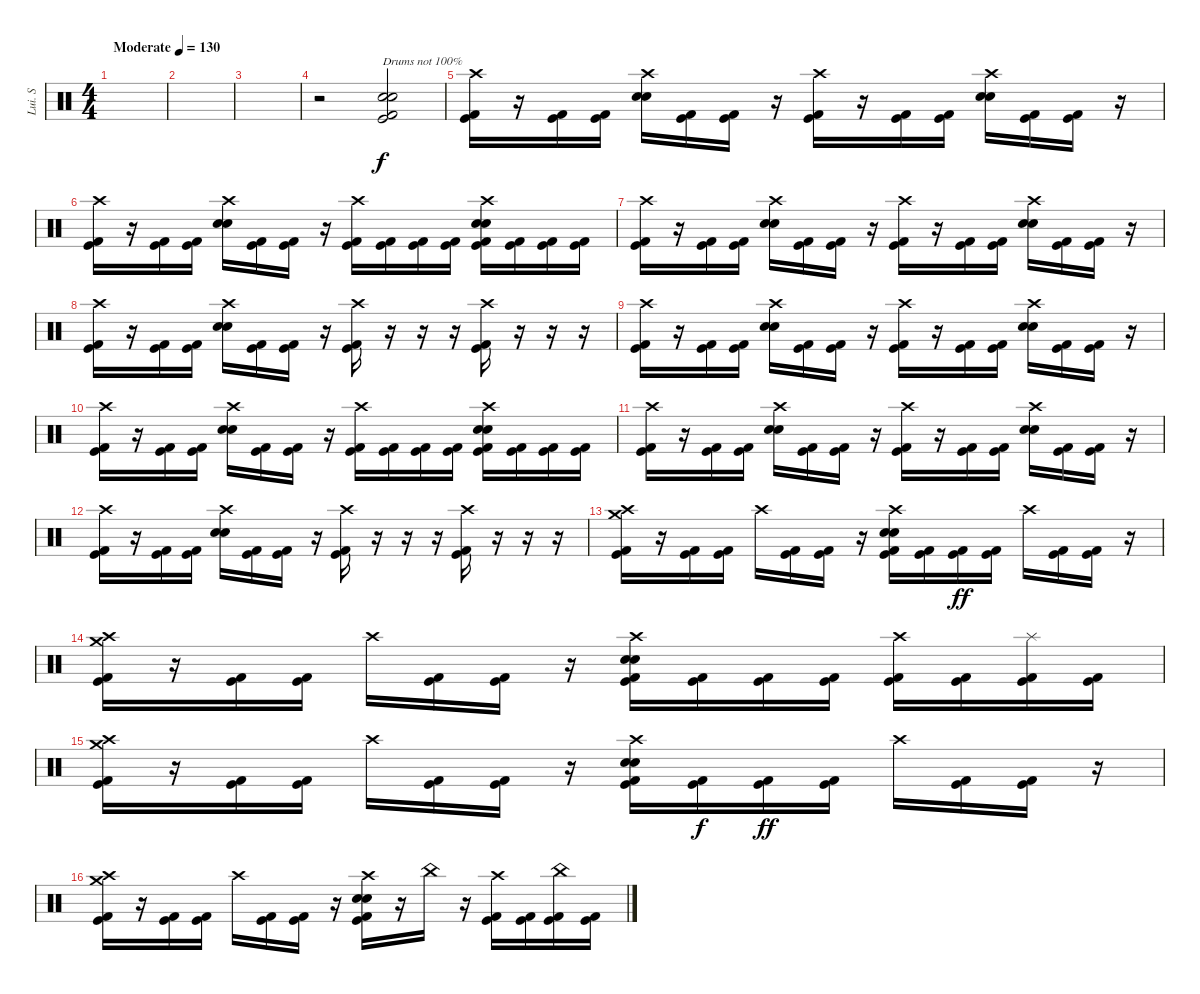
\track ("Lui. S" "Lui. S") {instrument percussion}
\staff {score}
\articulation defaults
\ts (4 4)
\tempo (130 "Moderate")
\clef neutral
\ks c
|
|
|
r.2 ("Snare (hit) 2" "Electric Snare (hit)" "Kick (hit) 2" "Kick (hit)").2{txt "Drums not 100% "} |
("Crash high (hit)" "Kick (hit)" "Kick (hit) 2").16 r.16 ("Kick (hit)" "Kick (hit) 2").16 ("Kick (hit)" "Kick (hit) 2").16 ("Crash high (hit)" "Snare (hit) 2" "Electric Snare (hit)").16 ("Kick (hit)" "Kick (hit) 2").16 ("Kick (hit)" "Kick (hit) 2").16 r.16 ("Crash high (hit)" "Kick (hit)" "Kick (hit) 2").16 r.16 ("Kick (hit)" "Kick (hit) 2").16 ("Kick (hit)" "Kick (hit) 2").16 ("Crash high (hit)" "Snare (hit) 2" "Electric Snare (hit)").16 ("Kick (hit)" "Kick (hit) 2").16 ("Kick (hit)" "Kick (hit) 2").16 r.16 |
("Crash high (hit)" "Kick (hit)" "Kick (hit) 2").16 r.16 ("Kick (hit)" "Kick (hit) 2").16 ("Kick (hit)" "Kick (hit) 2").16 ("Crash high (hit)" "Snare (hit) 2" "Electric Snare (hit)").16 ("Kick (hit)" "Kick (hit) 2").16 ("Kick (hit)" "Kick (hit) 2").16 r.16 ("Crash high (hit)" "Kick (hit)" "Kick (hit) 2").16 ("Kick (hit)" "Kick (hit) 2").16 ("Kick (hit)" "Kick (hit) 2").16 ("Kick (hit)" "Kick (hit) 2").16 ("Crash high (hit)" "Snare (hit) 2" "Electric Snare (hit)" "Kick (hit)" "Kick (hit) 2").16 ("Kick (hit)" "Kick (hit) 2").16 ("Kick (hit)" "Kick (hit) 2").16 ("Kick (hit)" "Kick (hit) 2").16 |
("Crash high (hit)" "Kick (hit)" "Kick (hit) 2").16 r.16 ("Kick (hit)" "Kick (hit) 2").16 ("Kick (hit)" "Kick (hit) 2").16 ("Crash high (hit)" "Snare (hit) 2" "Electric Snare (hit)").16 ("Kick (hit)" "Kick (hit) 2").16 ("Kick (hit)" "Kick (hit) 2").16 r.16 ("Crash high (hit)" "Kick (hit)" "Kick (hit) 2").16 r.16 ("Kick (hit)" "Kick (hit) 2").16 ("Kick (hit)" "Kick (hit) 2").16 ("Crash high (hit)" "Snare (hit) 2" "Electric Snare (hit)").16 ("Kick (hit)" "Kick (hit) 2").16 ("Kick (hit)" "Kick (hit) 2").16 r.16 |
("Crash high (hit)" "Kick (hit)" "Kick (hit) 2").16 r.16 ("Kick (hit)" "Kick (hit) 2").16 ("Kick (hit)" "Kick (hit) 2").16 ("Crash high (hit)" "Snare (hit) 2" "Electric Snare (hit)").16 ("Kick (hit)" "Kick (hit) 2").16 ("Kick (hit)" "Kick (hit) 2").16 r.16 ("Crash high (hit)" "Kick (hit)" "Kick (hit) 2").16 r.16 r.16 r.16 ("Crash high (hit)" "Kick (hit)" "Kick (hit) 2").16 r.16 r.16 r.16 |
("Crash high (hit)" "Kick (hit)" "Kick (hit) 2").16 r.16 ("Kick (hit)" "Kick (hit) 2").16 ("Kick (hit)" "Kick (hit) 2").16 ("Crash high (hit)" "Snare (hit) 2" "Electric Snare (hit)").16 ("Kick (hit)" "Kick (hit) 2").16 ("Kick (hit)" "Kick (hit) 2").16 r.16 ("Crash high (hit)" "Kick (hit)" "Kick (hit) 2").16 r.16 ("Kick (hit)" "Kick (hit) 2").16 ("Kick (hit)" "Kick (hit) 2").16 ("Crash high (hit)" "Snare (hit) 2" "Electric Snare (hit)").16 ("Kick (hit)" "Kick (hit) 2").16 ("Kick (hit)" "Kick (hit) 2").16 r.16 |
("Crash high (hit)" "Kick (hit)" "Kick (hit) 2").16 r.16 ("Kick (hit)" "Kick (hit) 2").16 ("Kick (hit)" "Kick (hit) 2").16 ("Crash high (hit)" "Snare (hit) 2" "Electric Snare (hit)").16 ("Kick (hit)" "Kick (hit) 2").16 ("Kick (hit)" "Kick (hit) 2").16 r.16 ("Crash high (hit)" "Kick (hit)" "Kick (hit) 2").16 ("Kick (hit)" "Kick (hit) 2").16 ("Kick (hit)" "Kick (hit) 2").16 ("Kick (hit)" "Kick (hit) 2").16 ("Crash high (hit)" "Snare (hit) 2" "Electric Snare (hit)" "Kick (hit)" "Kick (hit) 2").16 ("Kick (hit)" "Kick (hit) 2").16 ("Kick (hit)" "Kick (hit) 2").16 ("Kick (hit)" "Kick (hit) 2").16 |
("Crash high (hit)" "Kick (hit)" "Kick (hit) 2").16 r.16 ("Kick (hit)" "Kick (hit) 2").16 ("Kick (hit)" "Kick (hit) 2").16 ("Crash high (hit)" "Snare (hit) 2" "Electric Snare (hit)").16 ("Kick (hit)" "Kick (hit) 2").16 ("Kick (hit)" "Kick (hit) 2").16 r.16 ("Crash high (hit)" "Kick (hit)" "Kick (hit) 2").16 r.16 ("Kick (hit)" "Kick (hit) 2").16 ("Kick (hit)" "Kick (hit) 2").16 ("Crash high (hit)" "Snare (hit) 2" "Electric Snare (hit)").16 ("Kick (hit)" "Kick (hit) 2").16 ("Kick (hit)" "Kick (hit) 2").16 r.16 |
("Crash high (hit)" "Kick (hit)" "Kick (hit) 2").16 r.16 ("Kick (hit)" "Kick (hit) 2").16 ("Kick (hit)" "Kick (hit) 2").16 ("Crash high (hit)" "Snare (hit) 2" "Electric Snare (hit)").16 ("Kick (hit)" "Kick (hit) 2").16 ("Kick (hit)" "Kick (hit) 2").16 r.16 ("Crash high (hit)" "Kick (hit)" "Kick (hit) 2").16 r.16 r.16 r.16 ("Crash high (hit)" "Kick (hit)" "Kick (hit) 2").16 r.16 r.16 r.16 |
("Crash high (hit)" "Crash medium (hit)" "Kick (hit)" "Kick (hit) 2").16 r.16 ("Kick (hit)" "Kick (hit) 2").16 ("Kick (hit)" "Kick (hit) 2").16 "Crash high (hit)".16 ("Kick (hit)" "Kick (hit) 2").16 ("Kick (hit)" "Kick (hit) 2").16 r.16 ("Crash high (hit)" "Snare (hit) 2" "Electric Snare (hit)" "Kick (hit)" "Kick (hit) 2").16 ("Kick (hit)" "Kick (hit) 2").16{dy f} ("Kick (hit)" "Kick (hit) 2").16{dy ff} ("Kick (hit)" "Kick (hit) 2").16 "Crash high (hit)".16 ("Kick (hit)" "Kick (hit) 2").16 ("Kick (hit)" "Kick (hit) 2").16 r.16 |
("Crash high (hit)" "Crash medium (hit)" "Kick (hit)" "Kick (hit) 2").16 r.16 ("Kick (hit)" "Kick (hit) 2").16 ("Kick (hit)" "Kick (hit) 2").16 "Crash high (hit)".16 ("Kick (hit)" "Kick (hit) 2").16 ("Kick (hit)" "Kick (hit) 2").16 r.16 ("Crash high (hit)" "Electric Snare (hit)" "Snare (hit) 2" "Kick (hit)" "Kick (hit) 2").16 ("Kick (hit)" "Kick (hit) 2").16 ("Kick (hit)" "Kick (hit) 2").16 ("Kick (hit)" "Kick (hit) 2").16 ("Crash high (hit)" "Kick (hit)" "Kick (hit) 2").16 ("Kick (hit)" "Kick (hit) 2").16 ("Splash (hit)" "Kick (hit)" "Kick (hit) 2").16 ("Kick (hit)" "Kick (hit) 2").16 |
("Crash high (hit)" "Crash medium (hit)" "Kick (hit)" "Kick (hit) 2").16 r.16 ("Kick (hit)" "Kick (hit) 2").16 ("Kick (hit)" "Kick (hit) 2").16 "Crash high (hit)".16 ("Kick (hit)" "Kick (hit) 2").16 ("Kick (hit)" "Kick (hit) 2").16 r.16 ("Crash high (hit)" "Electric Snare (hit)" "Snare (hit) 2" "Kick (hit)" "Kick (hit) 2").16 ("Kick (hit)" "Kick (hit) 2").16{dy f} ("Kick (hit)" "Kick (hit) 2").16{dy ff} ("Kick (hit)" "Kick (hit) 2").16 "Crash high (hit)".16 ("Kick (hit)" "Kick (hit) 2").16 ("Kick (hit)" "Kick (hit) 2").16 r.16 |
("Crash high (hit)" "Crash medium (hit)" "Kick (hit)" "Kick (hit) 2").16 r.16 ("Kick (hit)" "Kick (hit) 2").16 ("Kick (hit)" "Kick (hit) 2").16 "Crash high (hit)".16 ("Kick (hit)" "Kick (hit) 2").16 ("Kick (hit)" "Kick (hit) 2").16 r.16 ("Crash high (hit)" "Electric Snare (hit)" "Snare (hit) 2" "Kick (hit)" "Kick (hit) 2").16 r.16 "China (hit)".16 r.16 ("Crash high (hit)" "Kick (hit)" "Kick (hit) 2").16 ("Kick (hit)" "Kick (hit) 2").16 ("China (hit)" "Kick (hit)" "Kick (hit) 2").16 ("Kick (hit)" "Kick (hit) 2").16
